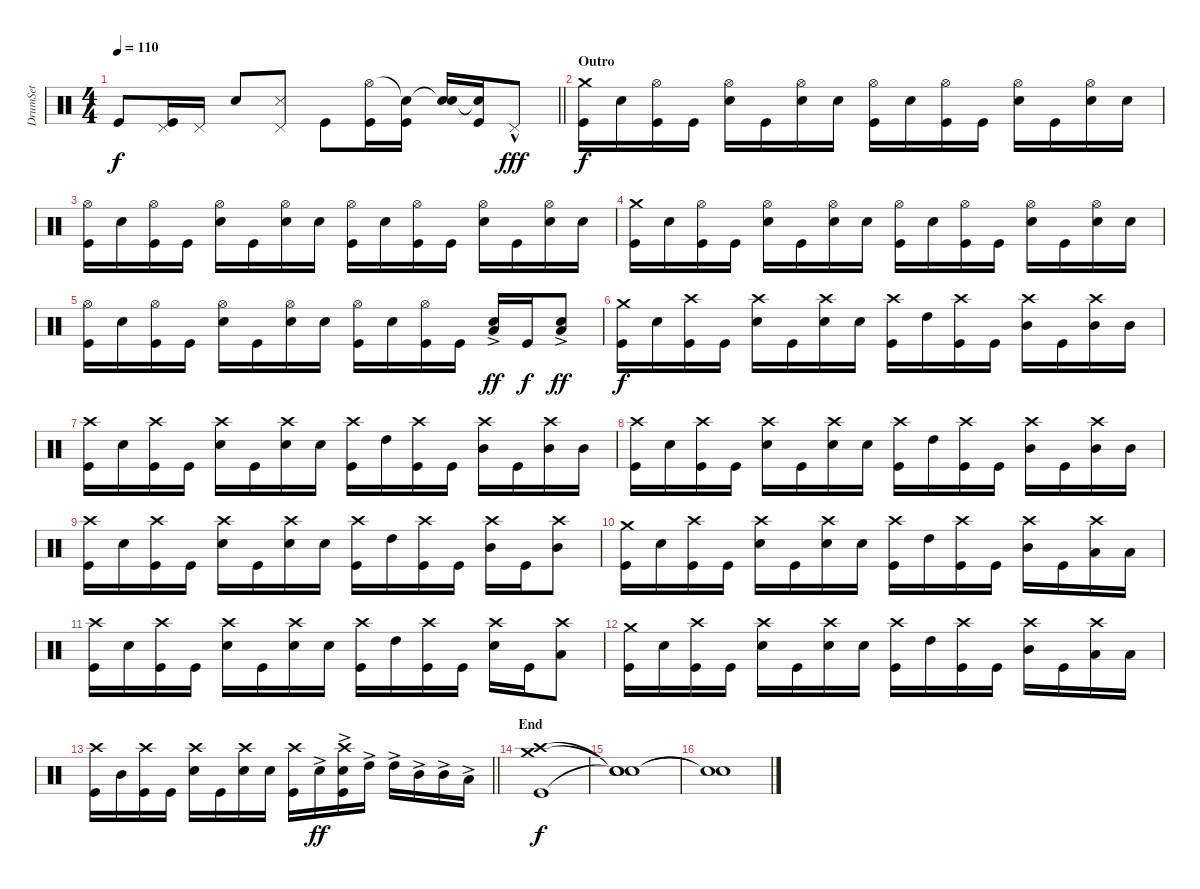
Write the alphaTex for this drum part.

\track ("DrumSet" "DrumSet") {instrument percussion}
\staff {score}
\articulation defaults
\ts (4 4)
\tempo 110
\clef neutral
\barLineRight lightlight
\ks c "Kick (hit)".8{dy f}
("Pedal Hi-Hat (hit)" "Kick (hit)").16 "Pedal Hi-Hat (hit)".16 "Snare (hit) 2".8 ("Snare (side stick) 3" "Pedal Hi-Hat (hit)").8 "Kick (hit)".8 ("Hi-Hat (open)" "Kick (hit)").16 ("Snare (hit)"{t} "Kick (hit)").16 ("Snare (hit)"{t} "Snare (hit) 2").16 ("Snare (hit)"{t} "Kick (hit)").16 "Pedal Hi-Hat (hit)"{hac}.8{dy fff} |
\section ("" "Outro")
("Crash medium (hit)" "Kick (hit)").16{dy f} "Snare (hit) 2".16 ("Hi-Hat (open)" "Kick (hit)").16 "Kick (hit)".16 ("Hi-Hat (open)" "Snare (hit) 2").16 "Kick (hit)".16 ("Hi-Hat (open)" "Snare (hit) 2").16 "Snare (hit) 2".16 ("Hi-Hat (open)" "Kick (hit)").16 "Snare (hit) 2".16 ("Hi-Hat (open)" "Kick (hit)").16 "Kick (hit)".16 ("Hi-Hat (open)" "Snare (hit) 2").16 "Kick (hit)".16 ("Hi-Hat (open)" "Snare (hit) 2").16 "Snare (hit) 2".16 |
("Hi-Hat (open)" "Kick (hit)").16 "Snare (hit) 2".16 ("Hi-Hat (open)" "Kick (hit)").16 "Kick (hit)".16 ("Hi-Hat (open)" "Snare (hit) 2").16 "Kick (hit)".16 ("Hi-Hat (open)" "Snare (hit) 2").16 "Snare (hit) 2".16 ("Hi-Hat (open)" "Kick (hit)").16 "Snare (hit) 2".16 ("Hi-Hat (open)" "Kick (hit)").16 "Kick (hit)".16 ("Hi-Hat (open)" "Snare (hit) 2").16 "Kick (hit)".16 ("Hi-Hat (open)" "Snare (hit) 2").16 "Snare (hit) 2".16 |
("Crash medium (hit)" "Kick (hit)").16 "Snare (hit) 2".16 ("Hi-Hat (open)" "Kick (hit)").16 "Kick (hit)".16 ("Hi-Hat (open)" "Snare (hit) 2").16 "Kick (hit)".16 ("Hi-Hat (open)" "Snare (hit) 2").16 "Snare (hit) 2".16 ("Hi-Hat (open)" "Kick (hit)").16 "Snare (hit) 2".16 ("Hi-Hat (open)" "Kick (hit)").16 "Kick (hit)".16 ("Hi-Hat (open)" "Snare (hit) 2").16 "Kick (hit)".16 ("Hi-Hat (open)" "Snare (hit) 2").16 "Snare (hit) 2".16 |
("Hi-Hat (open)" "Kick (hit)").16 "Snare (hit) 2".16 ("Hi-Hat (open)" "Kick (hit)").16 "Kick (hit)".16 ("Hi-Hat (open)" "Snare (hit) 2").16 "Kick (hit)".16 ("Hi-Hat (open)" "Snare (hit) 2").16 "Snare (hit) 2".16 ("Hi-Hat (open)" "Kick (hit)").16 "Snare (hit) 2".16 ("Hi-Hat (open)" "Kick (hit)").16 "Kick (hit)".16 ("Low Tom (hit)"{ac} "Snare (hit) 2"{ac}).16{dy ff} "Kick (hit)".16{dy f} ("Low Tom (hit)"{ac} "Snare (hit) 2"{ac}).8{dy ff} |
("Crash medium (hit)" "Kick (hit)").16{dy f} "Snare (hit) 2".16 ("Crash high (hit)" "Kick (hit)").16 "Kick (hit)".16 ("Crash high (hit)" "Snare (hit) 2").16 "Kick (hit)".16 ("Crash high (hit)" "Snare (hit) 2").16 "Snare (hit) 2".16 ("Crash high (hit)" "Kick (hit)").16 "High Tom (hit)".16 ("Crash high (hit)" "Kick (hit)").16 "Kick (hit)".16 ("Crash high (hit)" "Mid Tom (hit)").16 "Kick (hit)".16 ("Crash high (hit)" "Mid Tom (hit)").16 "Mid Tom (hit)".16 |
("Crash high (hit)" "Kick (hit)").16 "Snare (hit) 2".16 ("Crash high (hit)" "Kick (hit)").16 "Kick (hit)".16 ("Crash high (hit)" "Snare (hit) 2").16 "Kick (hit)".16 ("Crash high (hit)" "Snare (hit) 2").16 "Snare (hit) 2".16 ("Crash high (hit)" "Kick (hit)").16 "High Tom (hit)".16 ("Crash high (hit)" "Kick (hit)").16 "Kick (hit)".16 ("Crash high (hit)" "Mid Tom (hit)").16 "Kick (hit)".16 ("Crash high (hit)" "Mid Tom (hit)").16 "Mid Tom (hit)".16 |
("Crash high (hit)" "Kick (hit)").16 "Snare (hit) 2".16 ("Crash high (hit)" "Kick (hit)").16 "Kick (hit)".16 ("Crash high (hit)" "Snare (hit) 2").16 "Kick (hit)".16 ("Crash high (hit)" "Snare (hit) 2").16 "Snare (hit) 2".16 ("Crash high (hit)" "Kick (hit)").16 "High Tom (hit)".16 ("Crash high (hit)" "Kick (hit)").16 "Kick (hit)".16 ("Crash high (hit)" "Mid Tom (hit)").16 "Kick (hit)".16 ("Crash high (hit)" "Mid Tom (hit)").16 "Mid Tom (hit)".16 |
("Crash high (hit)" "Kick (hit)").16 "Snare (hit) 2".16 ("Crash high (hit)" "Kick (hit)").16 "Kick (hit)".16 ("Crash high (hit)" "Snare (hit) 2").16 "Kick (hit)".16 ("Crash high (hit)" "Snare (hit) 2").16 "Snare (hit) 2".16 ("Crash high (hit)" "Kick (hit)").16 "High Tom (hit)".16 ("Crash high (hit)" "Kick (hit)").16 "Kick (hit)".16 ("Crash high (hit)" "Mid Tom (hit)").16 "Kick (hit)".16 ("Crash high (hit)" "Mid Tom (hit)").8 |
("Crash medium (hit)" "Kick (hit)").16 "Snare (hit) 2".16 ("Crash high (hit)" "Kick (hit)").16 "Kick (hit)".16 ("Crash high (hit)" "Snare (hit) 2").16 "Kick (hit)".16 ("Crash high (hit)" "Snare (hit) 2").16 "Snare (hit) 2".16 ("Crash high (hit)" "Kick (hit)").16 "High Tom (hit)".16 ("Crash high (hit)" "Kick (hit)").16 "Kick (hit)".16 ("Crash high (hit)" "Mid Tom (hit)").16 "Kick (hit)".16 ("Crash high (hit)" "Low Tom (hit)").16 "Low Tom (hit)".16 |
("Crash high (hit)" "Kick (hit)").16 "Snare (hit) 2".16 ("Crash high (hit)" "Kick (hit)").16 "Kick (hit)".16 ("Crash high (hit)" "Snare (hit) 2").16 "Kick (hit)".16 ("Crash high (hit)" "Snare (hit) 2").16 "Snare (hit) 2".16 ("Crash high (hit)" "Kick (hit)").16 "High Tom (hit)".16 ("Crash high (hit)" "Kick (hit)").16 "Kick (hit)".16 ("Crash high (hit)" "Snare (hit) 2").16 "Kick (hit)".16 ("Crash high (hit)" "Low Tom (hit)").8 |
("Crash medium (hit)" "Kick (hit)").16 "Snare (hit) 2".16 ("Crash high (hit)" "Kick (hit)").16 "Kick (hit)".16 ("Crash high (hit)" "Snare (hit) 2").16 "Kick (hit)".16 ("Crash high (hit)" "Snare (hit) 2").16 "Snare (hit) 2".16 ("Crash high (hit)" "Kick (hit)").16 "High Tom (hit)".16 ("Crash high (hit)" "Kick (hit)").16 "Kick (hit)".16 ("Crash high (hit)" "Mid Tom (hit)").16 "Kick (hit)".16 ("Crash high (hit)" "Low Tom (hit)").16 "Low Tom (hit)".16 |
\barLineRight lightlight
("Crash high (hit)" "Kick (hit)").16 "Mid Tom (hit)".16 ("Crash high (hit)" "Kick (hit)").16 "Kick (hit)".16 ("Crash high (hit)" "Snare (hit) 2").16 "Kick (hit)".16 ("Crash high (hit)" "Snare (hit) 2").16 "Snare (hit) 2".16 ("Crash high (hit)" "Kick (hit)").16 "Snare (hit) 2"{ac}.16{dy ff} ("Crash high (hit)" "Snare (hit) 2"{ac} "Kick (hit)").16 "High Tom (hit)"{ac}.16 "High Tom (hit)"{ac}.16 "Mid Tom (hit)"{ac}.16 "Mid Tom (hit)"{ac}.16 "Low Tom (hit)"{ac}.16 |
\section ("" "End")
("Crash medium (hit)" "Crash high (hit)" "Kick (hit)").1{dy f} |
("Snare (hit)"{t} "Snare (hit)"{t} "Snare (hit)"{t}).1 |
("Snare (hit)"{t} "Snare (hit)"{t}).1
